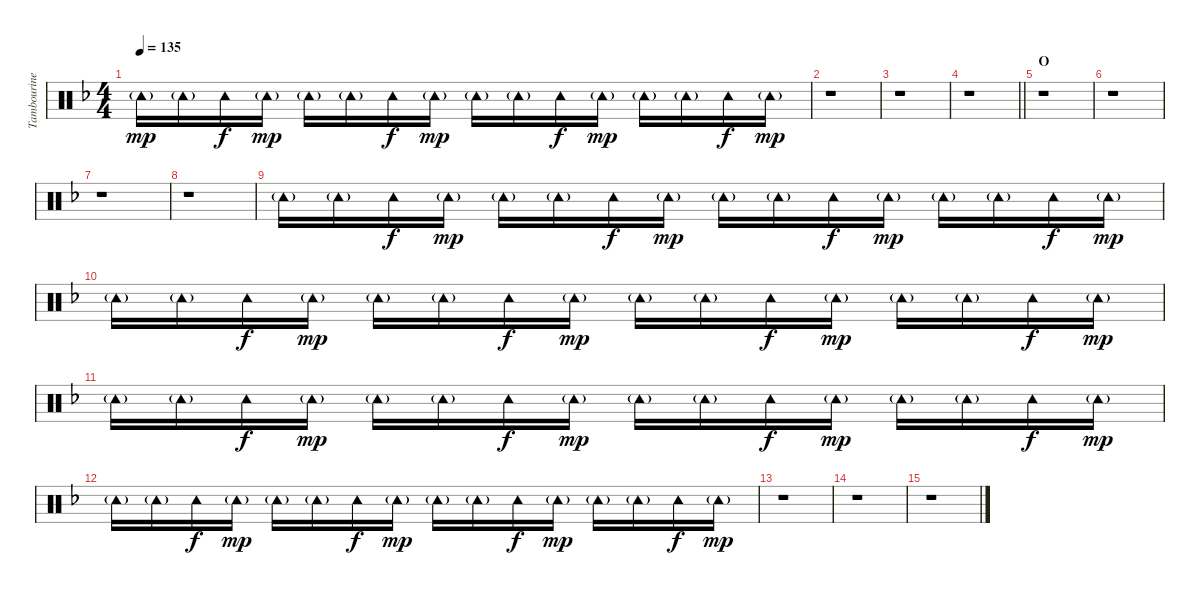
\track ("Tambourine" "Tambourine") {instrument percussion}
\staff {score}
\articulation defaults
\ts (4 4)
\tempo 135
\clef neutral
\ks f "Tambourine (hit)"{g}.16{dy mp} "Tambourine (hit)"{g}.16 "Tambourine (hit)".16{dy f} "Tambourine (hit)"{g}.16{dy mp} "Tambourine (hit)"{g}.16 "Tambourine (hit)"{g}.16 "Tambourine (hit)".16{dy f} "Tambourine (hit)"{g}.16{dy mp} "Tambourine (hit)"{g}.16 "Tambourine (hit)"{g}.16 "Tambourine (hit)".16{dy f} "Tambourine (hit)"{g}.16{dy mp} "Tambourine (hit)"{g}.16 "Tambourine (hit)"{g}.16 "Tambourine (hit)".16{dy f} "Tambourine (hit)"{g}.16{dy mp}
|
r.1 |
r.1 |
\barLineRight lightlight
r.1 |
\section ("" "O")
r.1 |
r.1 |
r.1 |
r.1 |
"Tambourine (hit)"{g}.16 "Tambourine (hit)"{g}.16 "Tambourine (hit)".16{dy f} "Tambourine (hit)"{g}.16{dy mp} "Tambourine (hit)"{g}.16 "Tambourine (hit)"{g}.16 "Tambourine (hit)".16{dy f} "Tambourine (hit)"{g}.16{dy mp} "Tambourine (hit)"{g}.16 "Tambourine (hit)"{g}.16 "Tambourine (hit)".16{dy f} "Tambourine (hit)"{g}.16{dy mp} "Tambourine (hit)"{g}.16 "Tambourine (hit)"{g}.16 "Tambourine (hit)".16{dy f} "Tambourine (hit)"{g}.16{dy mp} |
"Tambourine (hit)"{g}.16 "Tambourine (hit)"{g}.16 "Tambourine (hit)".16{dy f} "Tambourine (hit)"{g}.16{dy mp} "Tambourine (hit)"{g}.16 "Tambourine (hit)"{g}.16 "Tambourine (hit)".16{dy f} "Tambourine (hit)"{g}.16{dy mp} "Tambourine (hit)"{g}.16 "Tambourine (hit)"{g}.16 "Tambourine (hit)".16{dy f} "Tambourine (hit)"{g}.16{dy mp} "Tambourine (hit)"{g}.16 "Tambourine (hit)"{g}.16 "Tambourine (hit)".16{dy f} "Tambourine (hit)"{g}.16{dy mp} |
"Tambourine (hit)"{g}.16 "Tambourine (hit)"{g}.16 "Tambourine (hit)".16{dy f} "Tambourine (hit)"{g}.16{dy mp} "Tambourine (hit)"{g}.16 "Tambourine (hit)"{g}.16 "Tambourine (hit)".16{dy f} "Tambourine (hit)"{g}.16{dy mp} "Tambourine (hit)"{g}.16 "Tambourine (hit)"{g}.16 "Tambourine (hit)".16{dy f} "Tambourine (hit)"{g}.16{dy mp} "Tambourine (hit)"{g}.16 "Tambourine (hit)"{g}.16 "Tambourine (hit)".16{dy f} "Tambourine (hit)"{g}.16{dy mp} |
"Tambourine (hit)"{g}.16 "Tambourine (hit)"{g}.16 "Tambourine (hit)".16{dy f} "Tambourine (hit)"{g}.16{dy mp} "Tambourine (hit)"{g}.16 "Tambourine (hit)"{g}.16 "Tambourine (hit)".16{dy f} "Tambourine (hit)"{g}.16{dy mp} "Tambourine (hit)"{g}.16 "Tambourine (hit)"{g}.16 "Tambourine (hit)".16{dy f} "Tambourine (hit)"{g}.16{dy mp} "Tambourine (hit)"{g}.16 "Tambourine (hit)"{g}.16 "Tambourine (hit)".16{dy f} "Tambourine (hit)"{g}.16{dy mp} |
r.1 |
r.1 |
r.1
